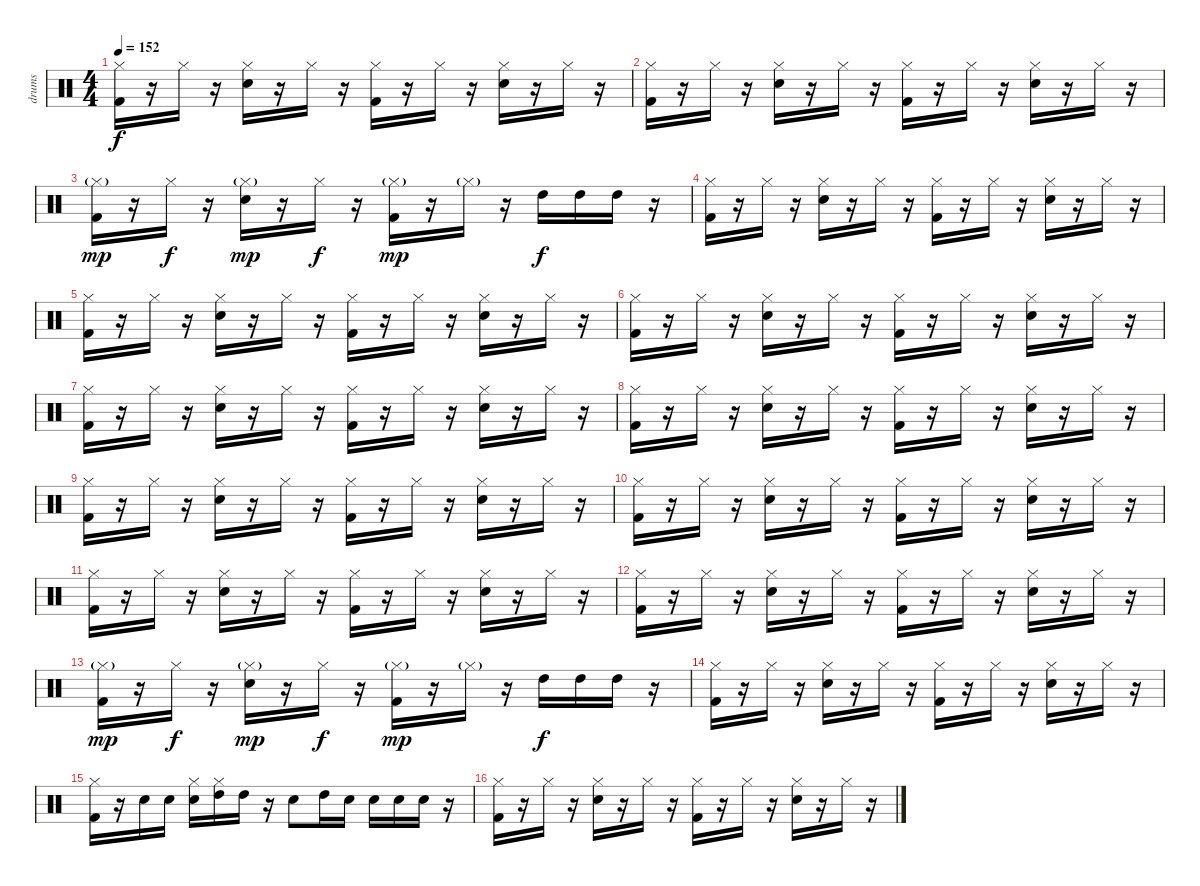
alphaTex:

\track ("drums" "drums") {instrument percussion}
\staff {score}
\articulation defaults
\ts (4 4)
\tempo 152
\clef neutral
\ks c
("Hi-Hat (closed)" "Kick (hit) 2").16{dy f} r.16 "Hi-Hat (closed)".16 r.16 ("Hi-Hat (closed)" "Electric Snare (hit)").16 r.16 "Hi-Hat (closed)".16 r.16 ("Hi-Hat (closed)" "Kick (hit) 2").16 r.16 "Hi-Hat (closed)".16 r.16 ("Hi-Hat (closed)" "Electric Snare (hit)").16 r.16 "Hi-Hat (closed)".16 r.16 |
("Hi-Hat (closed)" "Kick (hit) 2").16 r.16 "Hi-Hat (closed)".16 r.16 ("Hi-Hat (closed)" "Electric Snare (hit)").16 r.16 "Hi-Hat (closed)".16 r.16 ("Hi-Hat (closed)" "Kick (hit) 2").16 r.16 "Hi-Hat (closed)".16 r.16 ("Hi-Hat (closed)" "Electric Snare (hit)").16 r.16 "Hi-Hat (closed)".16 r.16 |
("Hi-Hat (closed)"{g} "Kick (hit) 2").16{dy mp} r.16 "Hi-Hat (closed)".16{dy f} r.16 ("Hi-Hat (closed)"{g} "Electric Snare (hit)").16{dy mp} r.16 "Hi-Hat (closed)".16{dy f} r.16 ("Hi-Hat (closed)"{g} "Kick (hit) 2").16{dy mp} r.16 "Hi-Hat (closed)"{g}.16 r.16 "High Tom (hit)".16{dy f} "High Tom (hit)".16 "High Tom (hit)".16 r.16 |
("Hi-Hat (closed)" "Kick (hit) 2").16 r.16 "Hi-Hat (closed)".16 r.16 ("Hi-Hat (closed)" "Electric Snare (hit)").16 r.16 "Hi-Hat (closed)".16 r.16 ("Hi-Hat (closed)" "Kick (hit) 2").16 r.16 "Hi-Hat (closed)".16 r.16 ("Hi-Hat (closed)" "Electric Snare (hit)").16 r.16 "Hi-Hat (closed)".16 r.16 |
("Hi-Hat (closed)" "Kick (hit) 2").16 r.16 "Hi-Hat (closed)".16 r.16 ("Hi-Hat (closed)" "Electric Snare (hit)").16 r.16 "Hi-Hat (closed)".16 r.16 ("Hi-Hat (closed)" "Kick (hit) 2").16 r.16 "Hi-Hat (closed)".16 r.16 ("Hi-Hat (closed)" "Electric Snare (hit)").16 r.16 "Hi-Hat (closed)".16 r.16 |
("Hi-Hat (closed)" "Kick (hit) 2").16 r.16 "Hi-Hat (closed)".16 r.16 ("Hi-Hat (closed)" "Electric Snare (hit)").16 r.16 "Hi-Hat (closed)".16 r.16 ("Hi-Hat (closed)" "Kick (hit) 2").16 r.16 "Hi-Hat (closed)".16 r.16 ("Hi-Hat (closed)" "Electric Snare (hit)").16 r.16 "Hi-Hat (closed)".16 r.16 |
("Hi-Hat (closed)" "Kick (hit) 2").16 r.16 "Hi-Hat (closed)".16 r.16 ("Hi-Hat (closed)" "Electric Snare (hit)").16 r.16 "Hi-Hat (closed)".16 r.16 ("Hi-Hat (closed)" "Kick (hit) 2").16 r.16 "Hi-Hat (closed)".16 r.16 ("Hi-Hat (closed)" "Electric Snare (hit)").16 r.16 "Hi-Hat (closed)".16 r.16 |
("Hi-Hat (closed)" "Kick (hit) 2").16 r.16 "Hi-Hat (closed)".16 r.16 ("Hi-Hat (closed)" "Electric Snare (hit)").16 r.16 "Hi-Hat (closed)".16 r.16 ("Hi-Hat (closed)" "Kick (hit) 2").16 r.16 "Hi-Hat (closed)".16 r.16 ("Hi-Hat (closed)" "Electric Snare (hit)").16 r.16 "Hi-Hat (closed)".16 r.16 |
("Hi-Hat (closed)" "Kick (hit) 2").16 r.16 "Hi-Hat (closed)".16 r.16 ("Hi-Hat (closed)" "Electric Snare (hit)").16 r.16 "Hi-Hat (closed)".16 r.16 ("Hi-Hat (closed)" "Kick (hit) 2").16 r.16 "Hi-Hat (closed)".16 r.16 ("Hi-Hat (closed)" "Electric Snare (hit)").16 r.16 "Hi-Hat (closed)".16 r.16 |
("Hi-Hat (closed)" "Kick (hit) 2").16 r.16 "Hi-Hat (closed)".16 r.16 ("Hi-Hat (closed)" "Electric Snare (hit)").16 r.16 "Hi-Hat (closed)".16 r.16 ("Hi-Hat (closed)" "Kick (hit) 2").16 r.16 "Hi-Hat (closed)".16 r.16 ("Hi-Hat (closed)" "Electric Snare (hit)").16 r.16 "Hi-Hat (closed)".16 r.16 |
("Hi-Hat (closed)" "Kick (hit) 2").16 r.16 "Hi-Hat (closed)".16 r.16 ("Hi-Hat (closed)" "Electric Snare (hit)").16 r.16 "Hi-Hat (closed)".16 r.16 ("Hi-Hat (closed)" "Kick (hit) 2").16 r.16 "Hi-Hat (closed)".16 r.16 ("Hi-Hat (closed)" "Electric Snare (hit)").16 r.16 "Hi-Hat (closed)".16 r.16 |
("Hi-Hat (closed)" "Kick (hit) 2").16 r.16 "Hi-Hat (closed)".16 r.16 ("Hi-Hat (closed)" "Electric Snare (hit)").16 r.16 "Hi-Hat (closed)".16 r.16 ("Hi-Hat (closed)" "Kick (hit) 2").16 r.16 "Hi-Hat (closed)".16 r.16 ("Hi-Hat (closed)" "Electric Snare (hit)").16 r.16 "Hi-Hat (closed)".16 r.16 |
("Hi-Hat (closed)"{g} "Kick (hit) 2").16{dy mp} r.16 "Hi-Hat (closed)".16{dy f} r.16 ("Hi-Hat (closed)"{g} "Electric Snare (hit)").16{dy mp} r.16 "Hi-Hat (closed)".16{dy f} r.16 ("Hi-Hat (closed)"{g} "Kick (hit) 2").16{dy mp} r.16 "Hi-Hat (closed)"{g}.16 r.16 "High Tom (hit)".16{dy f} "High Tom (hit)".16 "High Tom (hit)".16 r.16 |
("Hi-Hat (closed)" "Kick (hit) 2").16 r.16 "Hi-Hat (closed)".16 r.16 ("Hi-Hat (closed)" "Electric Snare (hit)").16 r.16 "Hi-Hat (closed)".16 r.16 ("Hi-Hat (closed)" "Kick (hit) 2").16 r.16 "Hi-Hat (closed)".16 r.16 ("Hi-Hat (closed)" "Electric Snare (hit)").16 r.16 "Hi-Hat (closed)".16 r.16 |
("Hi-Hat (closed)" "Kick (hit) 2").16 r.16 "Electric Snare (hit)".16 "Electric Snare (hit)".16 ("Hi-Hat (closed)" "Electric Snare (hit)").16 ("Hi-Hat (closed)" "High Tom (hit)").16 "High Tom (hit)".16 r.16 "Electric Snare (hit)".8{beam merge} "High Tom (hit)".16 "Electric Snare (hit)".16 "Electric Snare (hit)".16 "Electric Snare (hit)".16 "Electric Snare (hit)".16 r.16 |
("Hi-Hat (closed)" "Kick (hit) 2").16 r.16 "Hi-Hat (closed)".16 r.16 ("Hi-Hat (closed)" "Electric Snare (hit)").16 r.16 "Hi-Hat (closed)".16 r.16 ("Hi-Hat (closed)" "Kick (hit) 2").16 r.16 "Hi-Hat (closed)".16 r.16 ("Hi-Hat (closed)" "Electric Snare (hit)").16 r.16 "Hi-Hat (closed)".16 r.16
